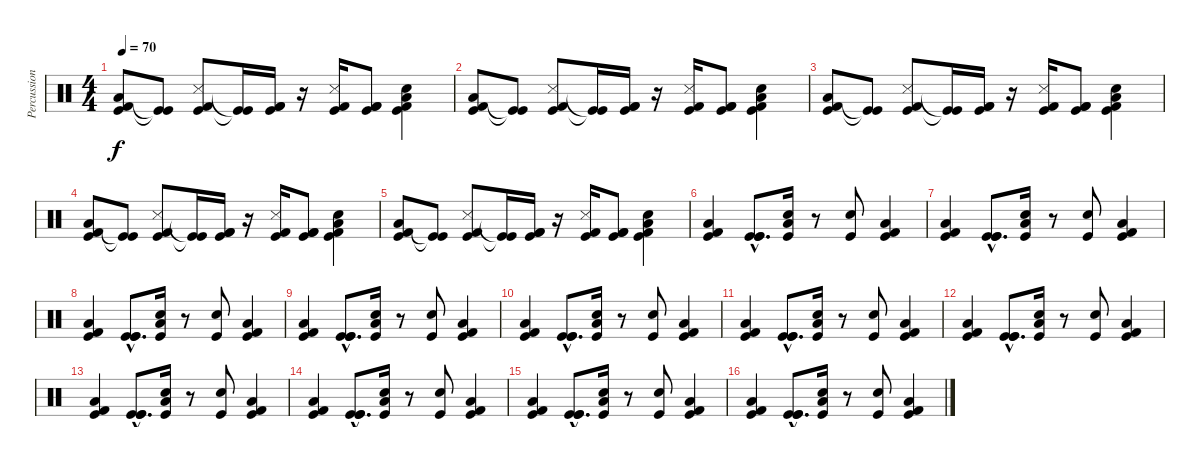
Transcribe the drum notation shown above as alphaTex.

\track ("Percussion" "Percussion") {instrument percussion}
\staff {score}
\articulation defaults
\ts (4 4)
\tempo 70
\clef neutral
\ks c
("Low Floor Tom (hit)" "Kick (hit)" "Kick (hit) 2").8{dy f} ("Kick (hit)"{t} "Kick (hit)"{t}).8 ("Metronome (hit)" "Kick (hit)" "Kick (hit) 2").8 ("Kick (hit)"{t} "Kick (hit)"{t}).16 ("Kick (hit)" "Kick (hit) 2" "Kick (hit) 2").16 r.16 ("Metronome (hit)" "Kick (hit)" "Kick (hit) 2").16 ("Kick (hit)" "Kick (hit) 2" "Kick (hit) 2").8 ("Snare (hit) 2" "Low Floor Tom (hit)" "Kick (hit)" "Kick (hit) 2").4 |
("Low Floor Tom (hit)" "Kick (hit)" "Kick (hit) 2").8 ("Kick (hit)"{t} "Kick (hit)"{t}).8 ("Metronome (hit)" "Kick (hit)" "Kick (hit) 2").8 ("Kick (hit)"{t} "Kick (hit)"{t}).16 ("Kick (hit)" "Kick (hit) 2" "Kick (hit) 2").16 r.16 ("Metronome (hit)" "Kick (hit)" "Kick (hit) 2").16 ("Kick (hit)" "Kick (hit) 2" "Kick (hit) 2").8 ("Snare (hit) 2" "Low Floor Tom (hit)" "Kick (hit)" "Kick (hit) 2").4 |
("Low Floor Tom (hit)" "Kick (hit)" "Kick (hit) 2").8 ("Kick (hit)"{t} "Kick (hit)"{t}).8 ("Metronome (hit)" "Kick (hit)" "Kick (hit) 2").8 ("Kick (hit)"{t} "Kick (hit)"{t}).16 ("Kick (hit)" "Kick (hit) 2" "Kick (hit) 2").16 r.16 ("Metronome (hit)" "Kick (hit)" "Kick (hit) 2").16 ("Kick (hit)" "Kick (hit) 2" "Kick (hit) 2").8 ("Snare (hit) 2" "Low Floor Tom (hit)" "Kick (hit)" "Kick (hit) 2").4 |
("Low Floor Tom (hit)" "Kick (hit)" "Kick (hit) 2").8 ("Kick (hit)"{t} "Kick (hit)"{t}).8 ("Metronome (hit)" "Kick (hit)" "Kick (hit) 2").8 ("Kick (hit)"{t} "Kick (hit)"{t}).16 ("Kick (hit)" "Kick (hit) 2" "Kick (hit) 2").16 r.16 ("Metronome (hit)" "Kick (hit)" "Kick (hit) 2").16 ("Kick (hit)" "Kick (hit) 2" "Kick (hit) 2").8 ("Snare (hit) 2" "Low Floor Tom (hit)" "Kick (hit)" "Kick (hit) 2").4 |
("Low Floor Tom (hit)" "Kick (hit)" "Kick (hit) 2").8 ("Kick (hit)"{t} "Kick (hit)"{t}).8 ("Metronome (hit)" "Kick (hit)" "Kick (hit) 2").8 ("Kick (hit)"{t} "Kick (hit)"{t}).16 ("Kick (hit)" "Kick (hit) 2" "Kick (hit) 2").16 r.16 ("Metronome (hit)" "Kick (hit)" "Kick (hit) 2").16 ("Kick (hit)" "Kick (hit) 2" "Kick (hit) 2").8 ("Snare (hit) 2" "Low Floor Tom (hit)" "Kick (hit)" "Kick (hit) 2").4 |
("Low Floor Tom (hit)" "Kick (hit)" "Kick (hit) 2").4 ("Kick (hit)"{hac} "Kick (hit)"{hac} "Kick (hit)"{hac}).8{d} ("Snare (hit) 2" "Low Floor Tom (hit)" "Kick (hit)").16 r.8 ("Snare (hit) 2" "Kick (hit)").8 ("Low Floor Tom (hit)" "Kick (hit) 2" "Kick (hit)").4 |
("Low Floor Tom (hit)" "Kick (hit)" "Kick (hit) 2").4 ("Kick (hit)"{hac} "Kick (hit)"{hac} "Kick (hit)"{hac}).8{d} ("Snare (hit) 2" "Low Floor Tom (hit)" "Kick (hit)").16 r.8 ("Snare (hit) 2" "Kick (hit)").8 ("Low Floor Tom (hit)" "Kick (hit) 2" "Kick (hit)").4 |
("Low Floor Tom (hit)" "Kick (hit)" "Kick (hit) 2").4 ("Kick (hit)"{hac} "Kick (hit)"{hac} "Kick (hit)"{hac}).8{d} ("Snare (hit) 2" "Low Floor Tom (hit)" "Kick (hit)").16 r.8 ("Snare (hit) 2" "Kick (hit)").8 ("Low Floor Tom (hit)" "Kick (hit) 2" "Kick (hit)").4 |
("Low Floor Tom (hit)" "Kick (hit)" "Kick (hit) 2").4 ("Kick (hit)"{hac} "Kick (hit)"{hac} "Kick (hit)"{hac}).8{d} ("Snare (hit) 2" "Low Floor Tom (hit)" "Kick (hit)").16 r.8 ("Snare (hit) 2" "Kick (hit)").8 ("Low Floor Tom (hit)" "Kick (hit) 2" "Kick (hit)").4 |
("Low Floor Tom (hit)" "Kick (hit)" "Kick (hit) 2").4 ("Kick (hit)"{hac} "Kick (hit)"{hac} "Kick (hit)"{hac}).8{d} ("Snare (hit) 2" "Low Floor Tom (hit)" "Kick (hit)").16 r.8 ("Snare (hit) 2" "Kick (hit)").8 ("Low Floor Tom (hit)" "Kick (hit) 2" "Kick (hit)").4 |
("Low Floor Tom (hit)" "Kick (hit)" "Kick (hit) 2").4 ("Kick (hit)"{hac} "Kick (hit)"{hac} "Kick (hit)"{hac}).8{d} ("Snare (hit) 2" "Low Floor Tom (hit)" "Kick (hit)").16 r.8 ("Snare (hit) 2" "Kick (hit)").8 ("Low Floor Tom (hit)" "Kick (hit) 2" "Kick (hit)").4 |
("Low Floor Tom (hit)" "Kick (hit)" "Kick (hit) 2").4 ("Kick (hit)"{hac} "Kick (hit)"{hac} "Kick (hit)"{hac}).8{d} ("Snare (hit) 2" "Low Floor Tom (hit)" "Kick (hit)").16 r.8 ("Snare (hit) 2" "Kick (hit)").8 ("Low Floor Tom (hit)" "Kick (hit) 2" "Kick (hit)").4 |
("Low Floor Tom (hit)" "Kick (hit)" "Kick (hit) 2").4 ("Kick (hit)"{hac} "Kick (hit)"{hac} "Kick (hit)"{hac}).8{d} ("Snare (hit) 2" "Low Floor Tom (hit)" "Kick (hit)").16 r.8 ("Snare (hit) 2" "Kick (hit)").8 ("Low Floor Tom (hit)" "Kick (hit) 2" "Kick (hit)").4 |
("Low Floor Tom (hit)" "Kick (hit)" "Kick (hit) 2").4 ("Kick (hit)"{hac} "Kick (hit)"{hac} "Kick (hit)"{hac}).8{d} ("Snare (hit) 2" "Low Floor Tom (hit)" "Kick (hit)").16 r.8 ("Snare (hit) 2" "Kick (hit)").8 ("Low Floor Tom (hit)" "Kick (hit) 2" "Kick (hit)").4 |
("Low Floor Tom (hit)" "Kick (hit)" "Kick (hit) 2").4 ("Kick (hit)"{hac} "Kick (hit)"{hac} "Kick (hit)"{hac}).8{d} ("Snare (hit) 2" "Low Floor Tom (hit)" "Kick (hit)").16 r.8 ("Snare (hit) 2" "Kick (hit)").8 ("Low Floor Tom (hit)" "Kick (hit) 2" "Kick (hit)").4 |
("Low Floor Tom (hit)" "Kick (hit)" "Kick (hit) 2").4 ("Kick (hit)"{hac} "Kick (hit)"{hac} "Kick (hit)"{hac}).8{d} ("Snare (hit) 2" "Low Floor Tom (hit)" "Kick (hit)").16 r.8 ("Snare (hit) 2" "Kick (hit)").8 ("Low Floor Tom (hit)" "Kick (hit) 2" "Kick (hit)").4
